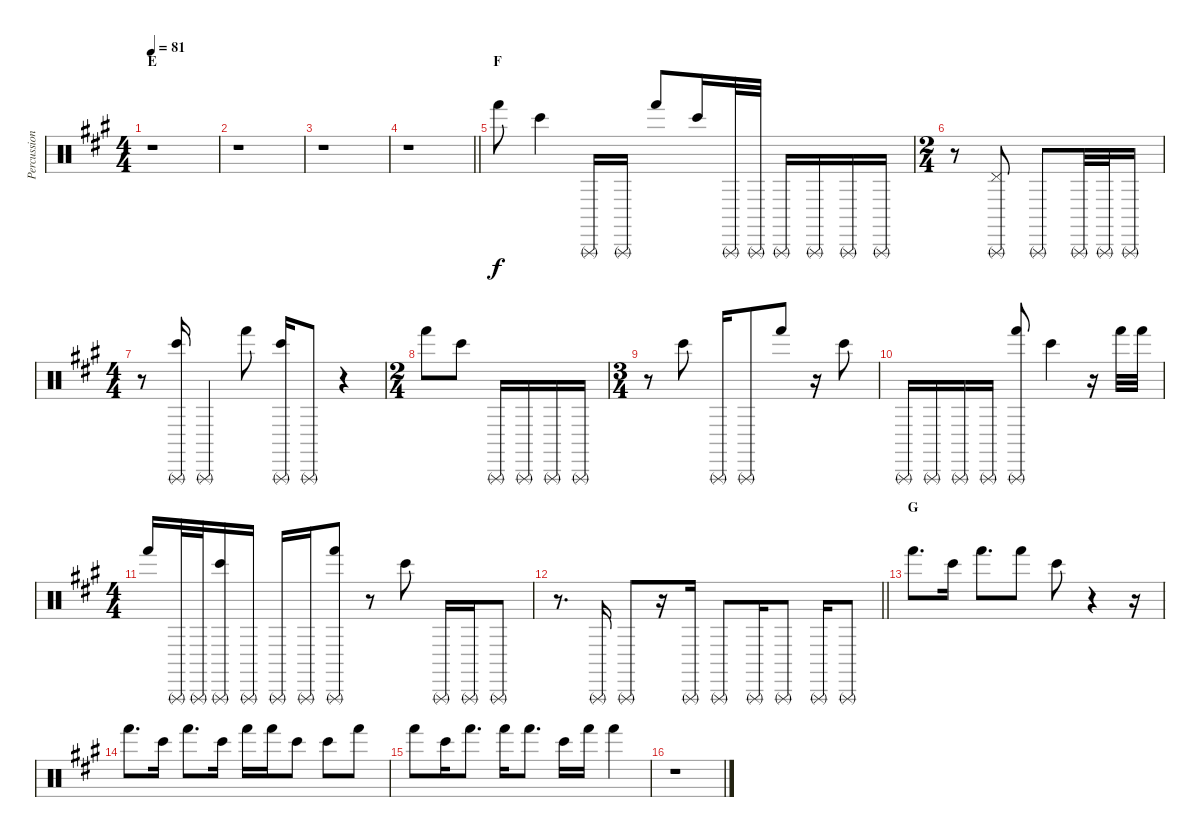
\track ("Percussion" "Percussion") {instrument percussion}
\staff {score}
\articulation defaults
\ts (4 4)
\section ("" "E")
\tempo 81
\clef neutral
\ks f#minor
r.1{dy f} |
r.1 |
r.1 |
\barLineRight lightlight
r.1 |
\section ("" "F")
"Hand (hit)".8 "Bongo High (hit)".4 "Triangle (rnute)".16 "Triangle (rnute)".16 "Hand (hit)".8 "Bongo High (hit)".16 "Triangle (rnute)".32 "Triangle (rnute)".32 "Triangle (rnute)".16 "Triangle (rnute)".16 "Triangle (rnute)".16 "Triangle (rnute)".16 |
\ts (2 4)
r.8 ("Triangle (rnute)" "Pedal Hi-Hat (hit)").8 "Triangle (rnute)".8 "Triangle (rnute)".32 "Triangle (rnute)".32 "Triangle (rnute)".16 |
\ts (4 4)
r.8 ("Bongo High (hit)" "Triangle (rnute)").16 "Triangle (rnute)".4 "Hand (hit)".8 ("Bongo High (hit)" "Triangle (rnute)").16 "Triangle (rnute)".8 r.4 |
\ts (2 4)
"Hand (hit)".8 "Bongo High (hit)".8 "Triangle (rnute)".16 "Triangle (rnute)".16 "Triangle (rnute)".16 "Triangle (rnute)".16 |
\ts (3 4)
r.8 "Bongo High (hit)".8 "Triangle (rnute)".16 "Triangle (rnute)".8 "Hand (hit)".8 r.16 "Bongo High (hit)".8 |
"Triangle (rnute)".16 "Triangle (rnute)".16 "Triangle (rnute)".16 "Triangle (rnute)".16 ("Hand (hit)" "Triangle (rnute)").8 "Bongo High (hit)".4 r.16 "Hand (hit)".32 "Hand (hit)".32 |
\ts (4 4)
"Hand (hit)".16 "Triangle (rnute)".32 "Triangle (rnute)".32 ("Bongo High (hit)" "Triangle (rnute)").16 "Triangle (rnute)".16 "Triangle (rnute)".16 "Triangle (rnute)".16 ("Hand (hit)" "Triangle (rnute)").8 r.8 "Bongo High (hit)".8 "Triangle (rnute)".16 "Triangle (rnute)".16 "Triangle (rnute)".8 |
\barLineRight lightlight
r.8{d} "Triangle (rnute)".16 "Triangle (rnute)".8 r.16 "Triangle (rnute)".16 "Triangle (rnute)".8 "Triangle (rnute)".16 "Triangle (rnute)".8 "Triangle (rnute)".16 "Triangle (rnute)".8 |
\section ("" "G")
"Hand (hit)".8{d} "Bongo High (hit)".16 "Hand (hit)".8{d} "Hand (hit)".8 "Bongo High (hit)".8 r.4 r.16 |
"Hand (hit)".8{d} "Bongo High (hit)".16 "Hand (hit)".8{d} "Bongo High (hit)".16 "Hand (hit)".16 "Hand (hit)".16 "Bongo High (hit)".8 "Bongo High (hit)".8 "Hand (hit)".8 |
"Hand (hit)".8 "Bongo High (hit)".16 "Hand (hit)".8{d} "Hand (hit)".16 "Hand (hit)".8{d} "Bongo High (hit)".16 "Hand (hit)".16 "Hand (hit)".4 |
r.1
